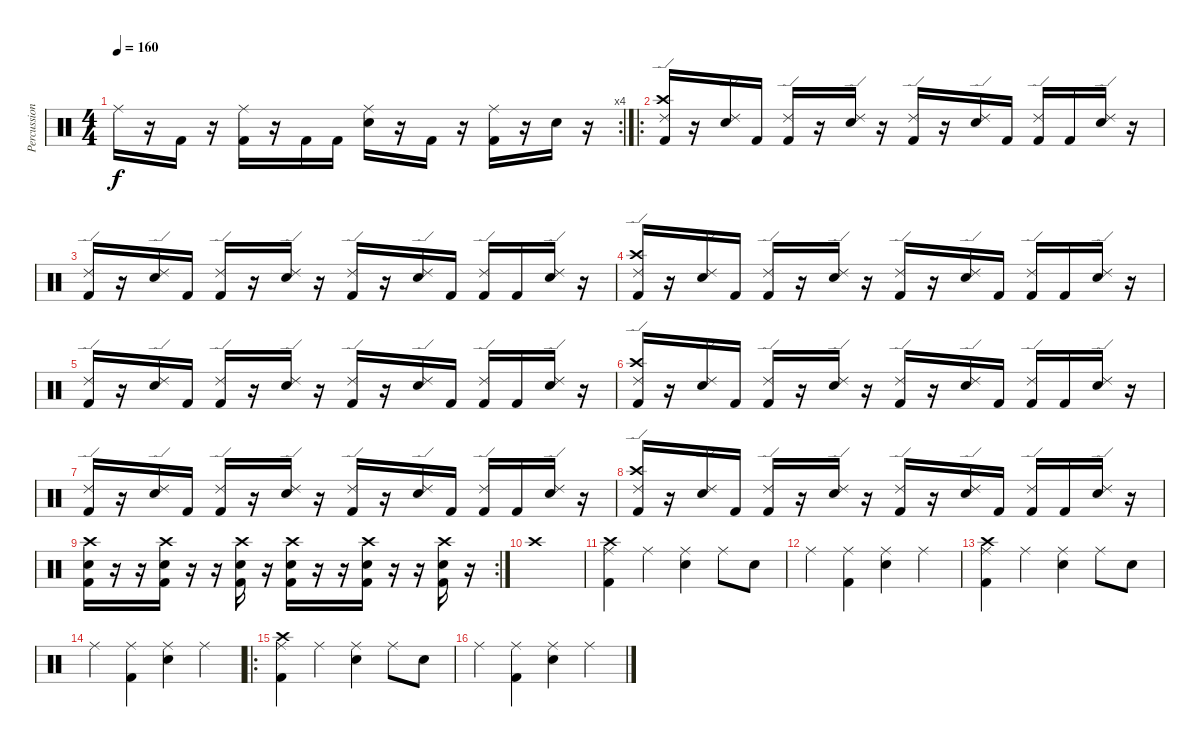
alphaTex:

\track ("Percussion" "Percussion") {instrument percussion}
\staff {score}
\articulation defaults
\rc 4
\ts (4 4)
\tempo 160
\clef neutral
\ks c "Ride (middle)".16{dy f}
r.16 "Kick (hit) 2".16 r.16 ("Kick (hit) 2" "Ride (middle)").16 r.16 "Kick (hit) 2".16 "Kick (hit) 2".16 ("Snare (hit) 2" "Ride (middle)").16 r.16 "Kick (hit) 2".16 r.16 ("Kick (hit) 2" "Ride (middle)").16 r.16 "Snare (hit) 2".16 r.16 |
\ro
("Kick (hit) 2" "Crash high (hit)" "Ride (edge) 2").16 r.16 ("Snare (hit) 2" "Ride (edge) 2").16 "Kick (hit) 2".16 ("Kick (hit) 2" "Ride (edge) 2").16 r.16 ("Snare (hit) 2" "Ride (edge) 2").16 r.16 ("Kick (hit) 2" "Ride (edge) 2").16 r.16 ("Snare (hit) 2" "Ride (edge) 2").16 "Kick (hit) 2".16 ("Kick (hit) 2" "Ride (edge) 2").16 "Kick (hit) 2".16 ("Snare (hit) 2" "Ride (edge) 2").16 r.16 |
("Kick (hit) 2" "Ride (edge) 2").16 r.16 ("Snare (hit) 2" "Ride (edge) 2").16 "Kick (hit) 2".16 ("Kick (hit) 2" "Ride (edge) 2").16 r.16 ("Snare (hit) 2" "Ride (edge) 2").16 r.16 ("Kick (hit) 2" "Ride (edge) 2").16 r.16 ("Snare (hit) 2" "Ride (edge) 2").16 "Kick (hit) 2".16 ("Kick (hit) 2" "Ride (edge) 2").16 "Kick (hit) 2".16 ("Snare (hit) 2" "Ride (edge) 2").16 r.16 |
("Kick (hit) 2" "Crash high (hit)" "Ride (edge) 2").16 r.16 ("Snare (hit) 2" "Ride (edge) 2").16 "Kick (hit) 2".16 ("Kick (hit) 2" "Ride (edge) 2").16 r.16 ("Snare (hit) 2" "Ride (edge) 2").16 r.16 ("Kick (hit) 2" "Ride (edge) 2").16 r.16 ("Snare (hit) 2" "Ride (edge) 2").16 "Kick (hit) 2".16 ("Kick (hit) 2" "Ride (edge) 2").16 "Kick (hit) 2".16 ("Snare (hit) 2" "Ride (edge) 2").16 r.16 |
("Kick (hit) 2" "Ride (edge) 2").16 r.16 ("Snare (hit) 2" "Ride (edge) 2").16 "Kick (hit) 2".16 ("Kick (hit) 2" "Ride (edge) 2").16 r.16 ("Snare (hit) 2" "Ride (edge) 2").16 r.16 ("Kick (hit) 2" "Ride (edge) 2").16 r.16 ("Snare (hit) 2" "Ride (edge) 2").16 "Kick (hit) 2".16 ("Kick (hit) 2" "Ride (edge) 2").16 "Kick (hit) 2".16 ("Snare (hit) 2" "Ride (edge) 2").16 r.16 |
("Kick (hit) 2" "Crash high (hit)" "Ride (edge) 2").16 r.16 ("Snare (hit) 2" "Ride (edge) 2").16 "Kick (hit) 2".16 ("Kick (hit) 2" "Ride (edge) 2").16 r.16 ("Snare (hit) 2" "Ride (edge) 2").16 r.16 ("Kick (hit) 2" "Ride (edge) 2").16 r.16 ("Snare (hit) 2" "Ride (edge) 2").16 "Kick (hit) 2".16 ("Kick (hit) 2" "Ride (edge) 2").16 "Kick (hit) 2".16 ("Snare (hit) 2" "Ride (edge) 2").16 r.16 |
("Kick (hit) 2" "Ride (edge) 2").16 r.16 ("Snare (hit) 2" "Ride (edge) 2").16 "Kick (hit) 2".16 ("Kick (hit) 2" "Ride (edge) 2").16 r.16 ("Snare (hit) 2" "Ride (edge) 2").16 r.16 ("Kick (hit) 2" "Ride (edge) 2").16 r.16 ("Snare (hit) 2" "Ride (edge) 2").16 "Kick (hit) 2".16 ("Kick (hit) 2" "Ride (edge) 2").16 "Kick (hit) 2".16 ("Snare (hit) 2" "Ride (edge) 2").16 r.16 |
("Kick (hit) 2" "Crash high (hit)" "Ride (edge) 2").16 r.16 ("Snare (hit) 2" "Ride (edge) 2").16 "Kick (hit) 2".16 ("Kick (hit) 2" "Ride (edge) 2").16 r.16 ("Snare (hit) 2" "Ride (edge) 2").16 r.16 ("Kick (hit) 2" "Ride (edge) 2").16 r.16 ("Snare (hit) 2" "Ride (edge) 2").16 "Kick (hit) 2".16 ("Kick (hit) 2" "Ride (edge) 2").16 "Kick (hit) 2".16 ("Snare (hit) 2" "Ride (edge) 2").16 r.16 |
\rc 2
("Kick (hit) 2" "Snare (hit) 2" "Crash high (hit)").16 r.16 r.16 ("Kick (hit) 2" "Snare (hit) 2" "Crash high (hit)").16 r.16 r.16 ("Kick (hit) 2" "Snare (hit) 2" "Crash high (hit)").16 r.16 ("Kick (hit) 2" "Snare (hit) 2" "Crash high (hit)").16 r.16 r.16 ("Kick (hit) 2" "Snare (hit) 2" "Crash high (hit)").16 r.16 r.16 ("Kick (hit) 2" "Snare (hit) 2" "Crash high (hit)").16 r.16 |
"Crash high (hit)".1 |
("Kick (hit) 2" "Crash high (hit)" "Ride (middle)").4 "Ride (middle)".4 ("Snare (hit) 2" "Ride (middle)").4 "Ride (middle)".8 "Snare (hit) 2".8 |
"Ride (middle)".4 ("Kick (hit) 2" "Ride (middle)").4 ("Snare (hit) 2" "Ride (middle)").4 "Ride (middle)".4 |
("Kick (hit) 2" "Crash high (hit)" "Ride (middle)").4 "Ride (middle)".4 ("Snare (hit) 2" "Ride (middle)").4 "Ride (middle)".8 "Snare (hit) 2".8 |
"Ride (middle)".4 ("Kick (hit) 2" "Ride (middle)").4 ("Snare (hit) 2" "Ride (middle)").4 "Ride (middle)".4 |
\ro
("Kick (hit) 2" "Crash high (hit)" "Ride (middle)").4 "Ride (middle)".4 ("Snare (hit) 2" "Ride (middle)").4 "Ride (middle)".8 "Snare (hit) 2".8 |
"Ride (middle)".4 ("Kick (hit) 2" "Ride (middle)").4 ("Snare (hit) 2" "Ride (middle)").4 "Ride (middle)".4
